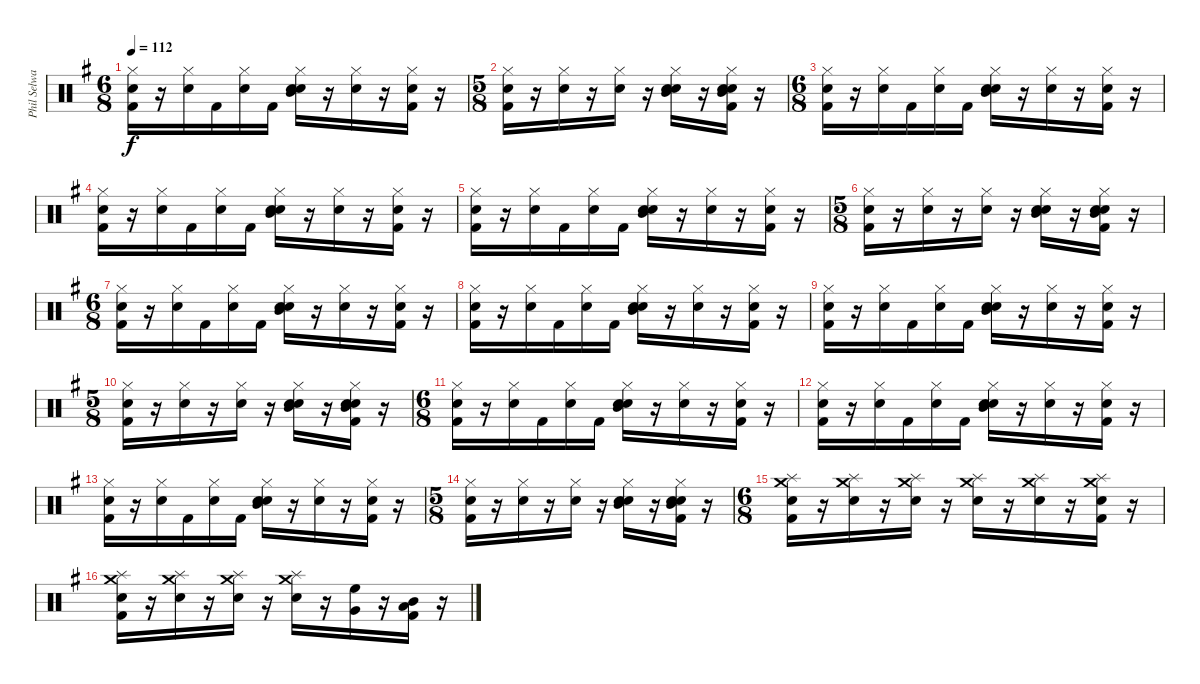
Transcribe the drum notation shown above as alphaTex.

\track ("Phil Selway" "Phil Selwa") {instrument percussion}
\staff {score}
\articulation defaults
\ts (6 8)
\tempo 112
\clef neutral
\ks g
("Hi-Hat (closed)" "Kick (hit) 2" "Snare (hit) 2").16{dy f} r.16 ("Hi-Hat (closed)" "Snare (hit) 2").16 "Kick (hit) 2".16 ("Hi-Hat (closed)" "Snare (hit) 2").16 "Kick (hit) 2".16 ("Hi-Hat (closed)" "Snare (hit) 2" "Mid Tom (hit)" "Electric Snare (hit)").16 r.16 ("Hi-Hat (closed)" "Snare (hit) 2").16 r.16 ("Hi-Hat (closed)" "Snare (hit) 2" "Kick (hit) 2").16 r.16 |
\ts (5 8)
("Hi-Hat (closed)" "Snare (hit) 2" "Kick (hit) 2").16 r.16 ("Hi-Hat (closed)" "Snare (hit) 2").16 r.16 ("Hi-Hat (closed)" "Snare (hit) 2").16 r.16 ("Hi-Hat (closed)" "Snare (hit) 2" "Mid Tom (hit)" "Electric Snare (hit)").16 r.16 ("Hi-Hat (closed)" "Snare (hit) 2" "Kick (hit) 2" "Mid Tom (hit)" "Electric Snare (hit)").16 r.16 |
\ts (6 8)
("Hi-Hat (closed)" "Kick (hit) 2" "Snare (hit) 2").16 r.16 ("Hi-Hat (closed)" "Snare (hit) 2").16 "Kick (hit) 2".16 ("Hi-Hat (closed)" "Snare (hit) 2").16 "Kick (hit) 2".16 ("Hi-Hat (closed)" "Snare (hit) 2" "Mid Tom (hit)" "Electric Snare (hit)").16 r.16 ("Hi-Hat (closed)" "Snare (hit) 2").16 r.16 ("Hi-Hat (closed)" "Snare (hit) 2" "Kick (hit) 2").16 r.16 |
("Hi-Hat (closed)" "Kick (hit) 2" "Snare (hit) 2").16 r.16 ("Hi-Hat (closed)" "Snare (hit) 2").16 "Kick (hit) 2".16 ("Hi-Hat (closed)" "Snare (hit) 2").16 "Kick (hit) 2".16 ("Hi-Hat (closed)" "Snare (hit) 2" "Mid Tom (hit)" "Electric Snare (hit)").16 r.16 ("Hi-Hat (closed)" "Snare (hit) 2").16 r.16 ("Hi-Hat (closed)" "Snare (hit) 2" "Kick (hit) 2").16 r.16 |
("Hi-Hat (closed)" "Kick (hit) 2" "Snare (hit) 2").16 r.16 ("Hi-Hat (closed)" "Snare (hit) 2").16 "Kick (hit) 2".16 ("Hi-Hat (closed)" "Snare (hit) 2").16 "Kick (hit) 2".16 ("Hi-Hat (closed)" "Snare (hit) 2" "Mid Tom (hit)" "Electric Snare (hit)").16 r.16 ("Hi-Hat (closed)" "Snare (hit) 2").16 r.16 ("Hi-Hat (closed)" "Snare (hit) 2" "Kick (hit) 2").16 r.16 |
\ts (5 8)
("Hi-Hat (closed)" "Snare (hit) 2" "Kick (hit) 2").16 r.16 ("Hi-Hat (closed)" "Snare (hit) 2").16 r.16 ("Hi-Hat (closed)" "Snare (hit) 2").16 r.16 ("Hi-Hat (closed)" "Snare (hit) 2" "Mid Tom (hit)" "Electric Snare (hit)").16 r.16 ("Hi-Hat (closed)" "Snare (hit) 2" "Kick (hit) 2" "Mid Tom (hit)" "Electric Snare (hit)").16 r.16 |
\ts (6 8)
("Hi-Hat (closed)" "Kick (hit) 2" "Snare (hit) 2").16 r.16 ("Hi-Hat (closed)" "Snare (hit) 2").16 "Kick (hit) 2".16 ("Hi-Hat (closed)" "Snare (hit) 2").16 "Kick (hit) 2".16 ("Hi-Hat (closed)" "Snare (hit) 2" "Mid Tom (hit)" "Electric Snare (hit)").16 r.16 ("Hi-Hat (closed)" "Snare (hit) 2").16 r.16 ("Hi-Hat (closed)" "Snare (hit) 2" "Kick (hit) 2").16 r.16 |
("Hi-Hat (closed)" "Kick (hit) 2" "Snare (hit) 2").16 r.16 ("Hi-Hat (closed)" "Snare (hit) 2").16 "Kick (hit) 2".16 ("Hi-Hat (closed)" "Snare (hit) 2").16 "Kick (hit) 2".16 ("Hi-Hat (closed)" "Snare (hit) 2" "Mid Tom (hit)" "Electric Snare (hit)").16 r.16 ("Hi-Hat (closed)" "Snare (hit) 2").16 r.16 ("Hi-Hat (closed)" "Snare (hit) 2" "Kick (hit) 2").16 r.16 |
("Hi-Hat (closed)" "Kick (hit) 2" "Snare (hit) 2").16 r.16 ("Hi-Hat (closed)" "Snare (hit) 2").16 "Kick (hit) 2".16 ("Hi-Hat (closed)" "Snare (hit) 2").16 "Kick (hit) 2".16 ("Hi-Hat (closed)" "Snare (hit) 2" "Mid Tom (hit)" "Electric Snare (hit)").16 r.16 ("Hi-Hat (closed)" "Snare (hit) 2").16 r.16 ("Hi-Hat (closed)" "Snare (hit) 2" "Kick (hit) 2").16 r.16 |
\ts (5 8)
("Hi-Hat (closed)" "Snare (hit) 2" "Kick (hit) 2").16 r.16 ("Hi-Hat (closed)" "Snare (hit) 2").16 r.16 ("Hi-Hat (closed)" "Snare (hit) 2").16 r.16 ("Hi-Hat (closed)" "Snare (hit) 2" "Mid Tom (hit)" "Electric Snare (hit)").16 r.16 ("Hi-Hat (closed)" "Snare (hit) 2" "Kick (hit) 2" "Mid Tom (hit)" "Electric Snare (hit)").16 r.16 |
\ts (6 8)
("Hi-Hat (closed)" "Kick (hit) 2" "Snare (hit) 2").16 r.16 ("Hi-Hat (closed)" "Snare (hit) 2").16 "Kick (hit) 2".16 ("Hi-Hat (closed)" "Snare (hit) 2").16 "Kick (hit) 2".16 ("Hi-Hat (closed)" "Snare (hit) 2" "Mid Tom (hit)" "Electric Snare (hit)").16 r.16 ("Hi-Hat (closed)" "Snare (hit) 2").16 r.16 ("Hi-Hat (closed)" "Snare (hit) 2" "Kick (hit) 2").16 r.16 |
("Hi-Hat (closed)" "Kick (hit) 2" "Snare (hit) 2").16 r.16 ("Hi-Hat (closed)" "Snare (hit) 2").16 "Kick (hit) 2".16 ("Hi-Hat (closed)" "Snare (hit) 2").16 "Kick (hit) 2".16 ("Hi-Hat (closed)" "Snare (hit) 2" "Mid Tom (hit)" "Electric Snare (hit)").16 r.16 ("Hi-Hat (closed)" "Snare (hit) 2").16 r.16 ("Hi-Hat (closed)" "Snare (hit) 2" "Kick (hit) 2").16 r.16 |
("Hi-Hat (closed)" "Kick (hit) 2" "Snare (hit) 2").16 r.16 ("Hi-Hat (closed)" "Snare (hit) 2").16 "Kick (hit) 2".16 ("Hi-Hat (closed)" "Snare (hit) 2").16 "Kick (hit) 2".16 ("Hi-Hat (closed)" "Snare (hit) 2" "Mid Tom (hit)" "Electric Snare (hit)").16 r.16 ("Hi-Hat (closed)" "Snare (hit) 2").16 r.16 ("Hi-Hat (closed)" "Snare (hit) 2" "Kick (hit) 2").16 r.16 |
\ts (5 8)
("Hi-Hat (closed)" "Snare (hit) 2" "Kick (hit) 2").16 r.16 ("Hi-Hat (closed)" "Snare (hit) 2").16 r.16 ("Hi-Hat (closed)" "Snare (hit) 2").16 r.16 ("Hi-Hat (closed)" "Snare (hit) 2" "Mid Tom (hit)" "Electric Snare (hit)").16 r.16 ("Hi-Hat (closed)" "Snare (hit) 2" "Kick (hit) 2" "Mid Tom (hit)" "Electric Snare (hit)").16 r.16 |
\ts (6 8)
("Crash medium (hit)" "Kick (hit) 2" "Snare (hit) 2" "Splash (hit)").16 r.16 ("Crash medium (hit)" "Snare (hit) 2" "Splash (hit)").16 r.16 ("Crash medium (hit)" "Snare (hit) 2" "Splash (hit)").16 r.16 ("Crash medium (hit)" "Snare (hit) 2" "Splash (hit)").16 r.16 ("Crash medium (hit)" "Snare (hit) 2" "Splash (hit)").16 r.16 ("Crash medium (hit)" "Snare (hit) 2" "Kick (hit) 2" "Splash (hit)").16 r.16 |
("Crash medium (hit)" "Kick (hit) 2" "Snare (hit) 2" "Splash (hit)").16 r.16 ("Crash medium (hit)" "Snare (hit) 2" "Splash (hit)").16 r.16 ("Crash medium (hit)" "Snare (hit) 2" "Splash (hit)").16 r.16 ("Crash medium (hit)" "Snare (hit) 2" "Splash (hit)").16 r.16 ("Very Low Tom (hit)" "High Floor Tom (hit)").16 r.16 ("Kick (hit) 2" "Low Tom (hit)" "Mid Tom (hit)").16 r.16
